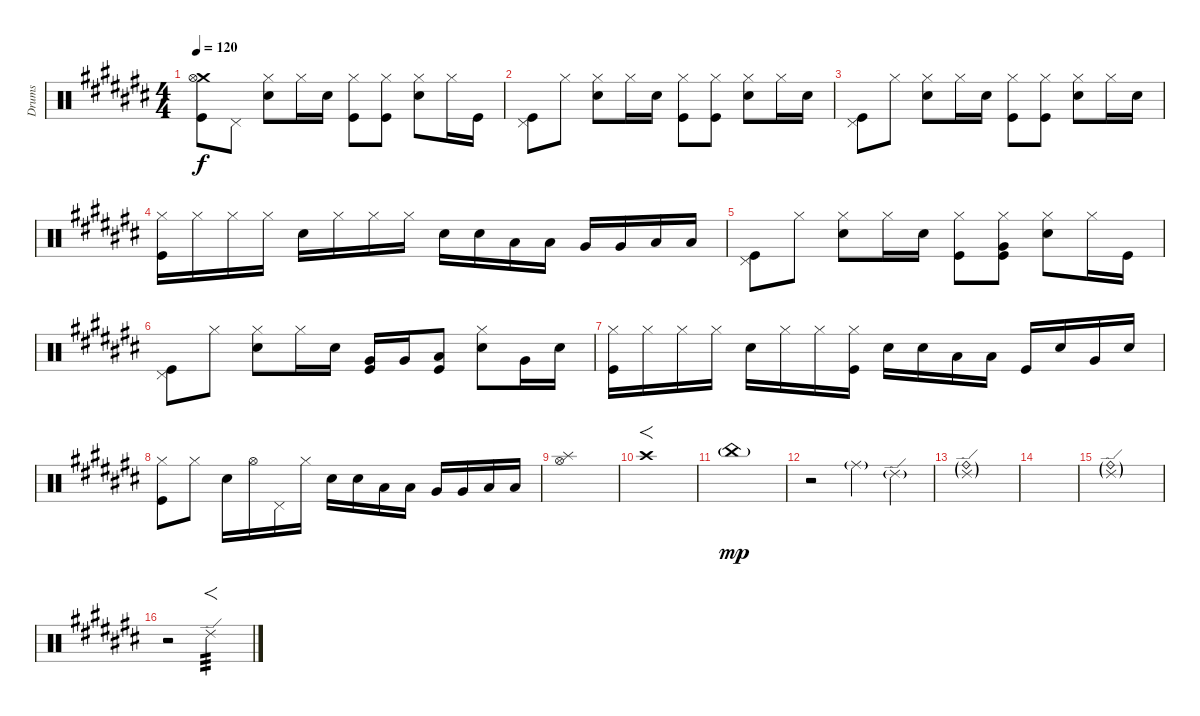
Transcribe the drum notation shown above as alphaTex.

\track ("Drums" "Drums") {instrument percussion}
\staff {score}
\articulation defaults
\ts (4 4)
\section ("" "")
\tempo 120
\clef neutral
\ks c#
("Crash medium (hit)" "Hi-Hat (open)" "Kick (hit)").8{dy f} "Pedal Hi-Hat (hit)".8 ("Hi-Hat (closed)" "Electric Snare (hit)").8 "Hi-Hat (closed)".16 "Electric Snare (hit)".16 ("Hi-Hat (closed)" "Kick (hit)").8 ("Hi-Hat (closed)" "Kick (hit)").8 ("Hi-Hat (closed)" "Electric Snare (hit)").8 "Hi-Hat (closed)".16 "Kick (hit)".16 |
("Pedal Hi-Hat (hit)" "Kick (hit)").8 "Hi-Hat (closed)".8 ("Hi-Hat (closed)" "Electric Snare (hit)").8 "Hi-Hat (closed)".16 "Electric Snare (hit)".16 ("Hi-Hat (closed)" "Kick (hit)").8 ("Hi-Hat (closed)" "Kick (hit)").8 ("Hi-Hat (closed)" "Electric Snare (hit)").8 "Hi-Hat (closed)".16 "Electric Snare (hit)".16 |
("Pedal Hi-Hat (hit)" "Kick (hit)").8 "Hi-Hat (closed)".8 ("Hi-Hat (closed)" "Electric Snare (hit)").8 "Hi-Hat (closed)".16 "Electric Snare (hit)".16 ("Hi-Hat (closed)" "Kick (hit)").8 ("Hi-Hat (closed)" "Kick (hit)").8 ("Hi-Hat (closed)" "Electric Snare (hit)").8 "Hi-Hat (closed)".16 "Electric Snare (hit)".16 |
("Hi-Hat (closed)" "Kick (hit)").16 "Hi-Hat (closed)".16 "Hi-Hat (closed)".16 "Hi-Hat (closed)".16 "Electric Snare (hit)".16 "Hi-Hat (closed)".16 "Hi-Hat (closed)".16 "Hi-Hat (closed)".16 "Electric Snare (hit)".16 "Electric Snare (hit)".16 "Low Tom (hit)".16 "Low Tom (hit)".16 "Very Low Tom (hit)".16 "Very Low Tom (hit)".16 "Low Floor Tom (hit)".16 "Low Floor Tom (hit)".16 |
("Pedal Hi-Hat (hit)" "Kick (hit)").8 "Hi-Hat (closed)".8 ("Hi-Hat (closed)" "Electric Snare (hit)").8 "Hi-Hat (closed)".16 "Electric Snare (hit)".16 ("Hi-Hat (closed)" "Kick (hit)").8 ("Hi-Hat (closed)" "Very Low Tom (hit)" "Kick (hit)").8 ("Hi-Hat (closed)" "Electric Snare (hit)").8 "Hi-Hat (closed)".16 "Kick (hit)".16 |
("Pedal Hi-Hat (hit)" "Kick (hit)").8 "Hi-Hat (closed)".8 ("Hi-Hat (closed)" "Electric Snare (hit)").8 "Hi-Hat (closed)".16 "Electric Snare (hit)".16 ("Very Low Tom (hit)" "Kick (hit)").16 "Very Low Tom (hit)".16 ("Low Floor Tom (hit)" "Kick (hit)").8 ("Hi-Hat (closed)" "Electric Snare (hit)").8 "Very Low Tom (hit)".16 "Electric Snare (hit)".16 |
("Hi-Hat (closed)" "Kick (hit)").16 "Hi-Hat (closed)".16 "Hi-Hat (closed)".16 "Hi-Hat (closed)".16 "Electric Snare (hit)".16 "Hi-Hat (closed)".16 "Hi-Hat (closed)".16 ("Hi-Hat (closed)" "Kick (hit)").16 "Electric Snare (hit)".16 "Electric Snare (hit)".16 "Low Tom (hit)".16 "Low Tom (hit)".16 "Kick (hit)".16 "Electric Snare (hit)".16 "Very Low Tom (hit)".16 "Electric Snare (hit)".16 |
("Hi-Hat (closed)" "Kick (hit)").8 "Hi-Hat (closed)".8 "Electric Snare (hit)".16 "Hi-Hat (open)".16 "Pedal Hi-Hat (hit)".16 "Hi-Hat (closed)".16 "Electric Snare (hit)".16 "Electric Snare (hit)".16 "Low Tom (hit)".16 "Low Tom (hit)".16 "Very Low Tom (hit)".16 "Very Low Tom (hit)".16 "Low Floor Tom (hit)".16 "Low Floor Tom (hit)".16 |
\section ("" "")
("Splash (hit)" "Hi-Hat (open)").1 |
"Crash high (hit)".1{f} |
"China (hit)"{g}.1{dy mp} |
r.2 "Ride (middle)"{g}.4 "Ride (edge) 2"{g}.4 |
("Ride (bell)"{g} "Ride (edge) 2"{g}).1 |
|
("Ride (bell)"{g} "Ride (edge) 2"{g}).1 |
r.2 "Ride (edge) 2".2{f tp 3}
